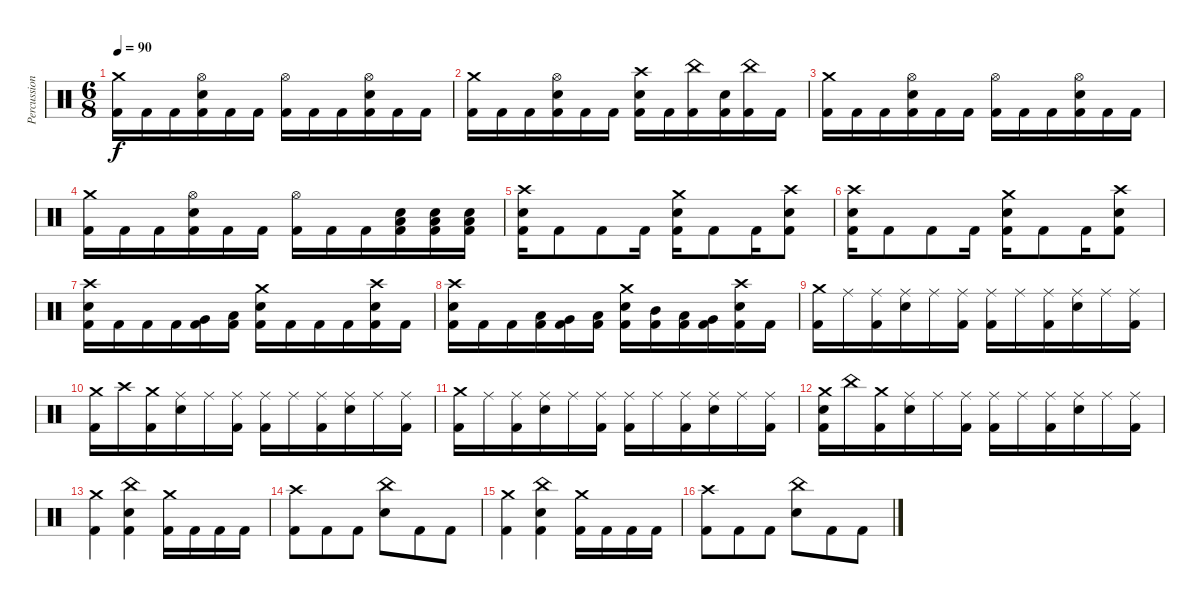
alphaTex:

\track ("Percussion" "Percussion") {instrument percussion}
\staff {score}
\articulation defaults
\ts (6 8)
\tempo 90
\clef neutral
\ks c
("Crash medium (hit)" "Kick (hit) 2").16{dy f} "Kick (hit) 2".16 "Kick (hit) 2".16 ("Hi-Hat (open)" "Electric Snare (hit)" "Kick (hit) 2").16 "Kick (hit) 2".16 "Kick (hit) 2".16 ("Hi-Hat (open)" "Kick (hit) 2").16 "Kick (hit) 2".16 "Kick (hit) 2".16 ("Hi-Hat (open)" "Electric Snare (hit)" "Kick (hit) 2").16 "Kick (hit) 2".16 "Kick (hit) 2".16 |
("Crash medium (hit)" "Kick (hit) 2").16 "Kick (hit) 2".16 "Kick (hit) 2".16 ("Hi-Hat (open)" "Electric Snare (hit)" "Kick (hit) 2").16 "Kick (hit) 2".16 "Kick (hit) 2".16 ("Crash high (hit)" "Electric Snare (hit)" "Kick (hit) 2").16 "Kick (hit) 2".16 ("China (hit)" "Kick (hit) 2").16 ("Electric Snare (hit)" "Kick (hit) 2").16 ("China (hit)" "Kick (hit) 2").16 "Kick (hit) 2".16 |
("Crash medium (hit)" "Kick (hit) 2").16 "Kick (hit) 2".16 "Kick (hit) 2".16 ("Hi-Hat (open)" "Electric Snare (hit)" "Kick (hit) 2").16 "Kick (hit) 2".16 "Kick (hit) 2".16 ("Hi-Hat (open)" "Kick (hit) 2").16 "Kick (hit) 2".16 "Kick (hit) 2".16 ("Hi-Hat (open)" "Electric Snare (hit)" "Kick (hit) 2").16 "Kick (hit) 2".16 "Kick (hit) 2".16 |
("Crash medium (hit)" "Kick (hit) 2").16 "Kick (hit) 2".16 "Kick (hit) 2".16 ("Hi-Hat (open)" "Electric Snare (hit)" "Kick (hit) 2").16 "Kick (hit) 2".16 "Kick (hit) 2".16 ("Hi-Hat (open)" "Kick (hit) 2").16 "Kick (hit) 2".16 "Kick (hit) 2".16 ("Low Floor Tom (hit)" "Electric Snare (hit)" "Kick (hit) 2").16 ("Low Floor Tom (hit)" "Electric Snare (hit)" "Kick (hit) 2").16 ("Low Floor Tom (hit)" "Electric Snare (hit)" "Kick (hit) 2").16 |
("Crash high (hit)" "Electric Snare (hit)" "Kick (hit) 2").16 "Kick (hit) 2".8 "Kick (hit) 2".8 "Kick (hit) 2".16 ("Crash medium (hit)" "Electric Snare (hit)" "Kick (hit) 2").16 "Kick (hit) 2".8 "Kick (hit) 2".16 ("Crash high (hit)" "Electric Snare (hit)" "Kick (hit) 2").8 |
("Crash high (hit)" "Electric Snare (hit)" "Kick (hit) 2").16 "Kick (hit) 2".8 "Kick (hit) 2".8 "Kick (hit) 2".16 ("Crash medium (hit)" "Electric Snare (hit)" "Kick (hit) 2").16 "Kick (hit) 2".8 "Kick (hit) 2".16 ("Crash high (hit)" "Electric Snare (hit)" "Kick (hit) 2").8 |
("Crash high (hit)" "Electric Snare (hit)" "Kick (hit) 2").16 "Kick (hit) 2".16 "Kick (hit) 2".16 "Kick (hit) 2".16 ("Very Low Tom (hit)" "Kick (hit) 2").16 ("Low Floor Tom (hit)" "Kick (hit) 2").16 ("Crash medium (hit)" "Electric Snare (hit)" "Kick (hit) 2").16 "Kick (hit) 2".16 "Kick (hit) 2".16 "Kick (hit) 2".16 ("Crash high (hit)" "Electric Snare (hit)" "Kick (hit) 2").16 "Kick (hit) 2".16 |
("Crash high (hit)" "Electric Snare (hit)" "Kick (hit) 2").16 "Kick (hit) 2".16 "Kick (hit) 2".16 ("Low Tom (hit)" "Kick (hit) 2").16 ("Very Low Tom (hit)" "Kick (hit) 2").16 ("Low Floor Tom (hit)" "Kick (hit) 2").16 ("Crash medium (hit)" "Electric Snare (hit)" "Kick (hit) 2").16 ("Mid Tom (hit)" "Kick (hit) 2").16 ("Low Tom (hit)" "Kick (hit) 2").16 ("Very Low Tom (hit)" "Kick (hit) 2").16 ("Crash high (hit)" "Electric Snare (hit)" "Kick (hit) 2").16 "Kick (hit) 2".16 |
("Crash medium (hit)" "Kick (hit) 2").16 "Ride (middle)".16 ("Ride (middle)" "Kick (hit) 2").16 ("Ride (middle)" "Electric Snare (hit)").16 "Ride (middle)".16 ("Ride (middle)" "Kick (hit) 2").16 ("Ride (middle)" "Kick (hit) 2").16 "Ride (middle)".16 ("Ride (middle)" "Kick (hit) 2").16 ("Ride (middle)" "Electric Snare (hit)").16 "Ride (middle)".16 ("Ride (middle)" "Kick (hit) 2").16 |
("Crash medium (hit)" "Kick (hit) 2").16 "Crash high (hit)".16 ("Crash medium (hit)" "Kick (hit) 2").16 ("Ride (middle)" "Electric Snare (hit)").16 "Ride (middle)".16 ("Ride (middle)" "Kick (hit) 2").16 ("Ride (middle)" "Kick (hit) 2").16 "Ride (middle)".16 ("Ride (middle)" "Kick (hit) 2").16 ("Ride (middle)" "Electric Snare (hit)").16 "Ride (middle)".16 ("Ride (middle)" "Kick (hit) 2").16 |
("Crash medium (hit)" "Kick (hit) 2").16 "Ride (middle)".16 ("Ride (middle)" "Kick (hit) 2").16 ("Ride (middle)" "Electric Snare (hit)").16 "Ride (middle)".16 ("Ride (middle)" "Kick (hit) 2").16 ("Ride (middle)" "Kick (hit) 2").16 "Ride (middle)".16 ("Ride (middle)" "Kick (hit) 2").16 ("Ride (middle)" "Electric Snare (hit)").16 "Ride (middle)".16 ("Ride (middle)" "Kick (hit) 2").16 |
("Crash medium (hit)" "Electric Snare (hit)" "Kick (hit) 2").16 "China (hit)".16 ("Crash medium (hit)" "Kick (hit) 2").16 ("Ride (middle)" "Electric Snare (hit)").16 "Ride (middle)".16 ("Ride (middle)" "Kick (hit) 2").16 ("Ride (middle)" "Kick (hit) 2").16 "Ride (middle)".16 ("Ride (middle)" "Kick (hit) 2").16 ("Ride (middle)" "Electric Snare (hit)").16 "Ride (middle)".16 ("Ride (middle)" "Kick (hit) 2").16 |
("Crash medium (hit)" "Kick (hit) 2").4 ("China (hit)" "Electric Snare (hit)" "Kick (hit) 2").4 ("Crash medium (hit)" "Kick (hit) 2").16 "Kick (hit) 2".16 "Kick (hit) 2".16 "Kick (hit) 2".16 |
("Crash high (hit)" "Kick (hit) 2").8 "Kick (hit) 2".8 "Kick (hit) 2".8 ("China (hit)" "Electric Snare (hit)").8 "Kick (hit) 2".8 "Kick (hit) 2".8 |
("Crash medium (hit)" "Kick (hit) 2").4 ("China (hit)" "Electric Snare (hit)" "Kick (hit) 2").4 ("Crash medium (hit)" "Kick (hit) 2").16 "Kick (hit) 2".16 "Kick (hit) 2".16 "Kick (hit) 2".16 |
("Crash high (hit)" "Kick (hit) 2").8 "Kick (hit) 2".8 "Kick (hit) 2".8 ("China (hit)" "Electric Snare (hit)").8 "Kick (hit) 2".8 "Kick (hit) 2".8
